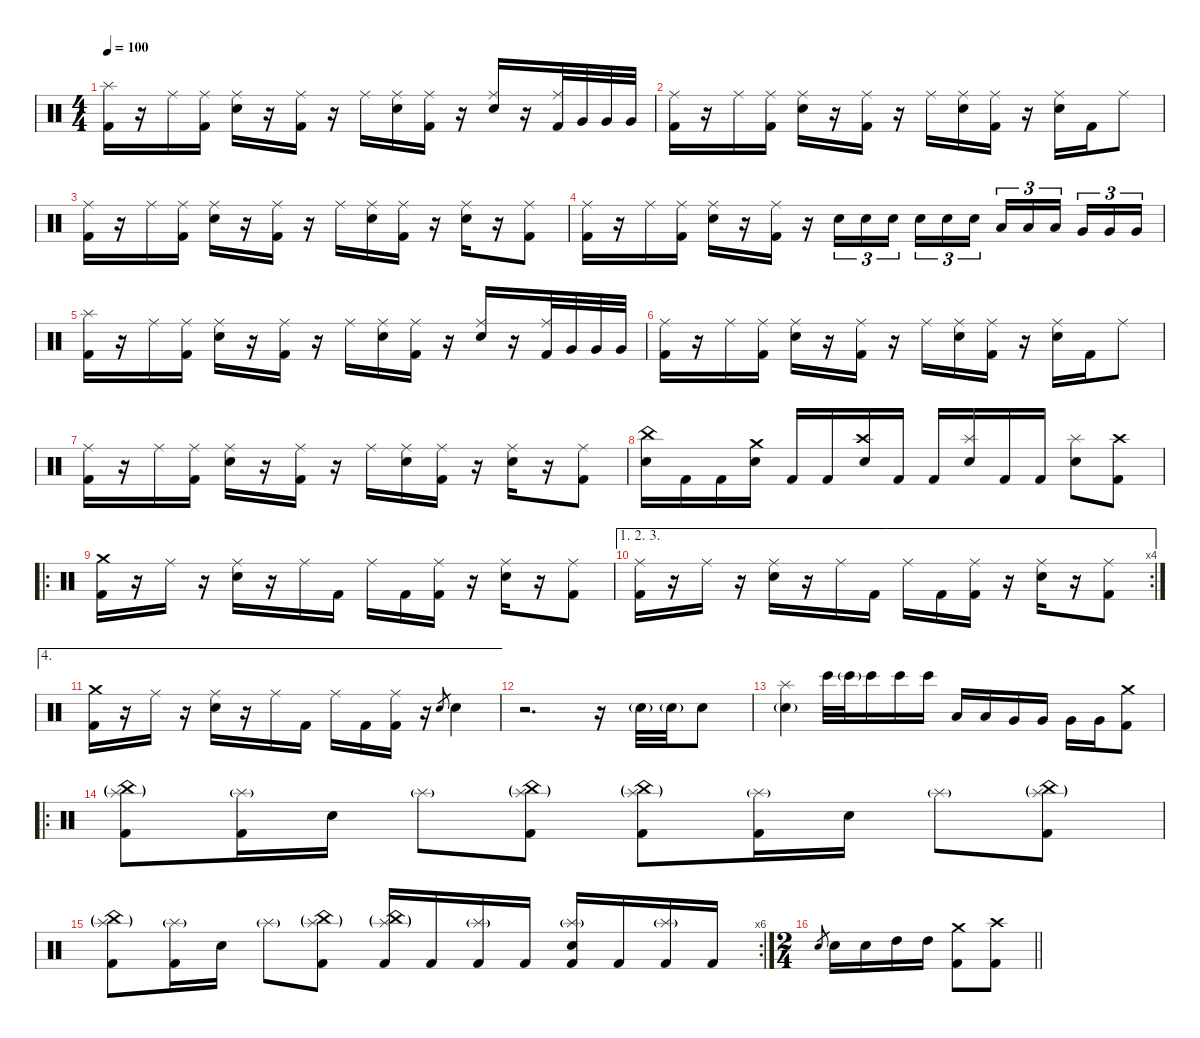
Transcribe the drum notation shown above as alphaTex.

\defaultSystemsLayout 4
\hideDynamics
\bracketExtendMode nobrackets
\singleTrackTrackNamePolicy hidden
\multiTrackTrackNamePolicy hidden
\firstSystemTrackNameMode fullname
\firstSystemTrackNameOrientation horizontal
\otherSystemsTrackNameOrientation horizontal
\track ("Drums" "drm.") {instrument percussion}
\staff {score}
\articulation defaults
\ts (4 4)
\tempo 100
\clef neutral
\ks c
("Splash (hit)" "Kick (hit) 2").16{dy f beam Down} r.16{beam Down} "Ride (middle)".16{beam Down} ("Ride (middle)" "Kick (hit) 2").16{beam Down} ("Ride (middle)" "Snare (hit) 2").16{beam Down} r.16{beam Down} ("Ride (middle)" "Kick (hit) 2").16{beam Down} r.16{beam Down} "Ride (middle)".16{beam Down} ("Ride (middle)" "Snare (hit) 2").16{beam Down} ("Ride (middle)" "Kick (hit) 2").16{beam Down} r.16{beam Down} ("Ride (middle)" "Snare (hit) 2").16{beam Up} r.16{beam Up} ("Ride (middle)" "Kick (hit) 2").32{beam Up} "Very Low Tom (hit)".32{beam Up} "Very Low Tom (hit)".32{beam Up} "Very Low Tom (hit)".32{beam Up} |
("Ride (middle)" "Kick (hit) 2").16{beam Down} r.16{beam Down} "Ride (middle)".16{beam Down} ("Ride (middle)" "Kick (hit) 2").16{beam Down} ("Ride (middle)" "Snare (hit) 2").16{beam Down} r.16{beam Down} ("Ride (middle)" "Kick (hit) 2").16{beam Down} r.16{beam Down} "Ride (middle)".16{beam Down} ("Ride (middle)" "Snare (hit) 2").16{beam Down} ("Ride (middle)" "Kick (hit) 2").16{beam Down} r.16{beam Down} ("Ride (middle)" "Snare (hit) 2").16{beam Down} "Kick (hit) 2".16{beam Down} "Ride (middle)".8{beam Down} |
("Ride (middle)" "Kick (hit) 2").16{beam Down} r.16{beam Down} "Ride (middle)".16{beam Down} ("Ride (middle)" "Kick (hit) 2").16{beam Down} ("Ride (middle)" "Snare (hit) 2").16{beam Down} r.16{beam Down} ("Ride (middle)" "Kick (hit) 2").16{beam Down} r.16{beam Down} "Ride (middle)".16{beam Down} ("Ride (middle)" "Snare (hit) 2").16{beam Down} ("Ride (middle)" "Kick (hit) 2").16{beam Down} r.16{beam Down} ("Ride (middle)" "Snare (hit) 2").16{beam Down} r.16{beam Down} ("Ride (middle)" "Kick (hit) 2").8{beam Down} |
("Ride (middle)" "Kick (hit) 2").16{beam Down} r.16{beam Down} "Ride (middle)".16{beam Down} ("Ride (middle)" "Kick (hit) 2").16{beam Down} ("Ride (middle)" "Snare (hit) 2").16{beam Down} r.16{beam Down} ("Ride (middle)" "Kick (hit) 2").16{beam Down} r.16{beam Down} "Snare (hit) 2".16{tu (3 2) dy mf beam Down} "Snare (hit) 2".16{tu (3 2) beam Down} "Snare (hit) 2".16{tu (3 2) dy f beam Down} "Snare (hit) 2".16{tu (3 2) beam Down} "Snare (hit) 2".16{tu (3 2) dy ff beam Down} "Snare (hit) 2".16{tu (3 2) beam Down} "Low Tom (hit)".16{tu (3 2) beam Up} "Low Tom (hit)".16{tu (3 2) beam Up} "Low Tom (hit)".16{tu (3 2) beam Up} "Very Low Tom (hit)".16{tu (3 2) beam Up} "Very Low Tom (hit)".16{tu (3 2) beam Up} "Very Low Tom (hit)".16{tu (3 2) beam Up} |
("Splash (hit)" "Kick (hit) 2").16{dy f beam Down} r.16{beam Down} "Ride (middle)".16{beam Down} ("Ride (middle)" "Kick (hit) 2").16{beam Down} ("Ride (middle)" "Snare (hit) 2").16{beam Down} r.16{beam Down} ("Ride (middle)" "Kick (hit) 2").16{beam Down} r.16{beam Down} "Ride (middle)".16{beam Down} ("Ride (middle)" "Snare (hit) 2").16{beam Down} ("Ride (middle)" "Kick (hit) 2").16{beam Down} r.16{beam Down} ("Ride (middle)" "Snare (hit) 2").16{beam Up} r.16{beam Up} ("Ride (middle)" "Kick (hit) 2").32{beam Up} "Very Low Tom (hit)".32{beam Up} "Very Low Tom (hit)".32{beam Up} "Very Low Tom (hit)".32{beam Up} |
("Ride (middle)" "Kick (hit) 2").16{beam Down} r.16{beam Down} "Ride (middle)".16{beam Down} ("Ride (middle)" "Kick (hit) 2").16{beam Down} ("Ride (middle)" "Snare (hit) 2").16{beam Down} r.16{beam Down} ("Ride (middle)" "Kick (hit) 2").16{beam Down} r.16{beam Down} "Ride (middle)".16{beam Down} ("Ride (middle)" "Snare (hit) 2").16{beam Down} ("Ride (middle)" "Kick (hit) 2").16{beam Down} r.16{beam Down} ("Ride (middle)" "Snare (hit) 2").16{beam Down} "Kick (hit) 2".16{beam Down} "Ride (middle)".8{beam Down} |
("Ride (middle)" "Kick (hit) 2").16{beam Down} r.16{beam Down} "Ride (middle)".16{beam Down} ("Ride (middle)" "Kick (hit) 2").16{beam Down} ("Ride (middle)" "Snare (hit) 2").16{beam Down} r.16{beam Down} ("Ride (middle)" "Kick (hit) 2").16{beam Down} r.16{beam Down} "Ride (middle)".16{beam Down} ("Ride (middle)" "Snare (hit) 2").16{beam Down} ("Ride (middle)" "Kick (hit) 2").16{beam Down} r.16{beam Down} ("Ride (middle)" "Snare (hit) 2").16{beam Down} r.16{beam Down} ("Ride (middle)" "Kick (hit) 2").8{beam Down} |
("China (hit)" "Snare (hit) 2").16{beam Down} "Kick (hit) 2".16{dy mf beam Down} "Kick (hit) 2".16{beam Down} ("Crash medium (hit)" "Snare (hit) 2").16{dy f beam Down} "Kick (hit) 2".16{dy mf beam Up} "Kick (hit) 2".16{beam Up} ("Crash high (hit)" "Snare (hit) 2").16{dy f beam Up} "Kick (hit) 2".16{dy mf beam Up} "Kick (hit) 2".16{beam Up} ("Splash (hit)" "Snare (hit) 2").16{dy f beam Up} "Kick (hit) 2".16{dy mf beam Up} "Kick (hit) 2".16{beam Up} ("Splash (hit)" "Snare (hit) 2").8{dy f beam Down} ("Crash high (hit)" "Kick (hit) 2").8{beam Down} |
\ro
("Crash medium (hit)" "Kick (hit) 2").16{beam Down} r.16{beam Down} "Ride (middle)".16{beam Down} r.16{beam Down} ("Ride (middle)" "Snare (hit) 2").16{beam Down} r.16{beam Down} "Ride (middle)".16{beam Down} "Kick (hit) 2".16{beam Down} "Ride (middle)".16{beam Down} "Kick (hit) 2".16{beam Down} ("Ride (middle)" "Kick (hit) 2").16{beam Down} r.16{beam Down} ("Ride (middle)" "Snare (hit) 2").16{beam Down} r.16{beam Down} ("Ride (middle)" "Kick (hit) 2").8{beam Down} |
\ae (1 2 3)
\rc 4
("Ride (middle)" "Kick (hit) 2").16{beam Down} r.16{beam Down} "Ride (middle)".16{beam Down} r.16{beam Down} ("Ride (middle)" "Snare (hit) 2").16{beam Down} r.16{beam Down} "Ride (middle)".16{beam Down} "Kick (hit) 2".16{beam Down} "Ride (middle)".16{beam Down} "Kick (hit) 2".16{beam Down} ("Ride (middle)" "Kick (hit) 2").16{beam Down} r.16{beam Down} ("Ride (middle)" "Snare (hit) 2").16{beam Down} r.16{beam Down} ("Ride (middle)" "Kick (hit) 2").8{beam Down} |
\ae 4
("Crash medium (hit)" "Kick (hit) 2").16{beam Down} r.16{beam Down} "Ride (middle)".16{beam Down} r.16{beam Down} ("Ride (middle)" "Snare (hit) 2").16{beam Down} r.16{beam Down} "Ride (middle)".16{beam Down} "Kick (hit) 2".16{beam Down} "Ride (middle)".16{beam Down} "Kick (hit) 2".16{beam Down} ("Ride (middle)" "Kick (hit) 2").16{beam Down} r.16{beam Down} "Electric Snare (hit)".8{gr dy mp beam Up} "Snare (hit) 2".4{dy f beam Down} |
r.2{d beam Down} r.16{beam Down} "Snare (hit) 2"{g}.32{dy mf beam Down} "Snare (hit) 2"{g}.32{beam Down} "Snare (hit) 2".8{dy f beam Down} |
("Splash (hit)" "Snare (hit) 2"{g}).4{dy mf beam Down} "Bongo High (hit)".32{dy fff beam Down} "Bongo High (hit)"{g}.32{beam Down} "Bongo High (hit)".16{beam Down} "Bongo High (hit)".16{beam Down} "Bongo High (hit)".16{beam Down} "Low Tom (hit)".16{dy f beam Up} "Low Tom (hit)".16{beam Up} "Very Low Tom (hit)".16{beam Up} "Very Low Tom (hit)".16{beam Up} "Very Low Tom (hit)".16{beam Down} "Very Low Tom (hit)".16{beam Down} ("Crash medium (hit)" "Kick (hit) 2").8{beam Down} |
\ro
("Splash (hit)"{g} "China (hit)"{g} "Kick (hit) 2").8{beam Down} ("Splash (hit)"{g} "Kick (hit) 2").16{beam Down} "Snare (hit) 2".16{beam Down} "Splash (hit)"{g}.8{dy mf beam Down} ("Splash (hit)"{g} "China (hit)"{g} "Kick (hit) 2").8{dy f beam Down} ("Splash (hit)"{g} "China (hit)"{g} "Kick (hit) 2").8{beam Down} ("Splash (hit)"{g} "Kick (hit) 2").16{beam Down} "Snare (hit) 2".16{beam Down} "Splash (hit)"{g}.8{dy mf beam Down} ("Splash (hit)"{g} "China (hit)"{g} "Kick (hit) 2").8{dy f beam Down} |
\rc 6
("Splash (hit)"{g} "China (hit)"{g} "Kick (hit) 2").8{beam Down} ("Splash (hit)"{g} "Kick (hit) 2").16{beam Down} "Snare (hit) 2".16{beam Down} "Splash (hit)"{g}.8{dy mf beam Down} ("Splash (hit)"{g} "China (hit)"{g} "Kick (hit) 2").8{dy f beam Down} ("Splash (hit)"{g} "China (hit)"{g} "Kick (hit) 2").16{beam Up} "Kick (hit) 2".16{beam Up} ("Splash (hit)"{g} "Kick (hit) 2").16{beam Up} "Kick (hit) 2".16{beam Up} ("Splash (hit)"{g} "Snare (hit) 2" "Kick (hit) 2").16{beam Up} "Kick (hit) 2".16{beam Up} ("Splash (hit)"{g} "Kick (hit) 2").16{beam Up} "Kick (hit) 2".16{beam Up} |
\ts (2 4)
\beaming (8 2 2)
\barLineRight lightlight "Electric Snare (hit)".8{gr dy mf beam Up} "Snare (hit) 2".16{dy f beam Down} "Snare (hit) 2".16{beam Down} "High Tom (hit)".16{beam Down} "High Tom (hit)".16{beam Down}
("Crash medium (hit)" "Kick (hit) 2").8{beam Down} ("Crash high (hit)" "Kick (hit) 2").8{beam Down}
